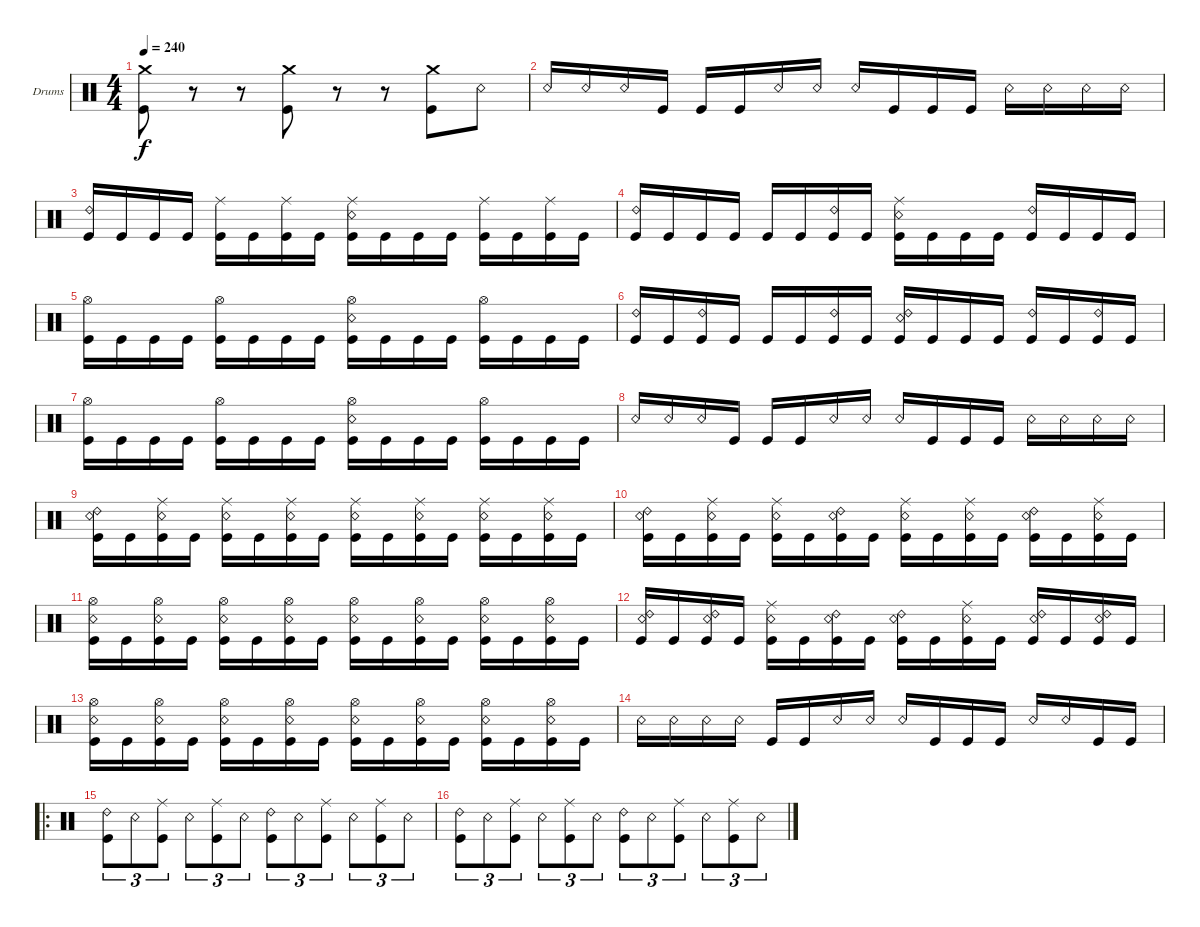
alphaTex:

\bracketExtendMode groupsimilarinstruments
\firstSystemTrackNameOrientation horizontal
\otherSystemsTrackNameOrientation horizontal
\track ("Drumkit" "Drums") {instrument percussion}
\staff {score}
\articulation defaults
\ts (4 4)
\tempo 240
\clef neutral
\ks c
("Crash medium (hit)" "Kick (hit)").8{dy f} r.8 r.8 ("Crash medium (hit)" "Kick (hit)").8 r.8 r.8 ("Crash medium (hit)" "Kick (hit)").8 "Snare (rim shot)".8 |
"Snare (rim shot)".16 "Snare (rim shot)".16 "Snare (rim shot)".16 "Kick (hit)".16 "Kick (hit)".16 "Kick (hit)".16 "Snare (rim shot)".16 "Snare (rim shot)".16 "Snare (rim shot)".16 "Kick (hit)".16 "Kick (hit)".16 "Kick (hit)".16 "Snare (rim shot)".16 "Snare (rim shot)".16 "Snare (rim shot)".16 "Snare (rim shot)".16 |
("Ride (bell) 2" "Kick (hit)").16 "Kick (hit)".16 "Kick (hit)".16 "Kick (hit)".16 ("Ride (middle)" "Kick (hit)").16 "Kick (hit)".16 ("Ride (middle)" "Kick (hit)").16 "Kick (hit)".16 ("Ride (middle)" "Kick (hit)" "Snare (rim shot)").16 "Kick (hit)".16 "Kick (hit)".16 "Kick (hit)".16 ("Ride (middle)" "Kick (hit)").16 "Kick (hit)".16 ("Ride (middle)" "Kick (hit)").16 "Kick (hit)".16 |
("Ride (bell) 2" "Kick (hit)").16 "Kick (hit)".16 "Kick (hit)".16 "Kick (hit)".16 "Kick (hit)".16 "Kick (hit)".16 ("Ride (bell) 2" "Kick (hit)").16 "Kick (hit)".16 ("Ride (middle)" "Kick (hit)" "Snare (rim shot)").16 "Kick (hit)".16 "Kick (hit)".16 "Kick (hit)".16 ("Ride (bell) 2" "Kick (hit)").16 "Kick (hit)".16 "Kick (hit)".16 "Kick (hit)".16 |
("Hi-Hat (open)" "Kick (hit)").16 "Kick (hit)".16 "Kick (hit)".16 "Kick (hit)".16 ("Hi-Hat (open)" "Kick (hit)").16 "Kick (hit)".16 "Kick (hit)".16 "Kick (hit)".16 ("Hi-Hat (open)" "Kick (hit)" "Snare (rim shot)").16 "Kick (hit)".16 "Kick (hit)".16 "Kick (hit)".16 ("Hi-Hat (open)" "Kick (hit)").16 "Kick (hit)".16 "Kick (hit)".16 "Kick (hit)".16 |
("Ride (bell) 2" "Kick (hit)").16 "Kick (hit)".16 ("Ride (bell) 2" "Kick (hit)").16 "Kick (hit)".16 "Kick (hit)".16 "Kick (hit)".16 ("Ride (bell) 2" "Kick (hit)").16 "Kick (hit)".16 ("Ride (bell) 2" "Kick (hit)" "Snare (rim shot)").16 "Kick (hit)".16 "Kick (hit)".16 "Kick (hit)".16 ("Ride (bell) 2" "Kick (hit)").16 "Kick (hit)".16 ("Ride (bell) 2" "Kick (hit)").16 "Kick (hit)".16 |
("Hi-Hat (open)" "Kick (hit)").16 "Kick (hit)".16 "Kick (hit)".16 "Kick (hit)".16 ("Hi-Hat (open)" "Kick (hit)").16 "Kick (hit)".16 "Kick (hit)".16 "Kick (hit)".16 ("Hi-Hat (open)" "Kick (hit)" "Snare (rim shot)").16 "Kick (hit)".16 "Kick (hit)".16 "Kick (hit)".16 ("Hi-Hat (open)" "Kick (hit)").16 "Kick (hit)".16 "Kick (hit)".16 "Kick (hit)".16 |
"Snare (rim shot)".16 "Snare (rim shot)".16 "Snare (rim shot)".16 "Kick (hit)".16 "Kick (hit)".16 "Kick (hit)".16 "Snare (rim shot)".16 "Snare (rim shot)".16 "Snare (rim shot)".16 "Kick (hit)".16 "Kick (hit)".16 "Kick (hit)".16 "Snare (rim shot)".16 "Snare (rim shot)".16 "Snare (rim shot)".16 "Snare (rim shot)".16 |
("Snare (rim shot)" "Ride (bell) 2" "Kick (hit)").16 "Kick (hit)".16 ("Snare (rim shot)" "Ride (middle)" "Kick (hit)").16 "Kick (hit)".16 ("Snare (rim shot)" "Ride (middle)" "Kick (hit)").16 "Kick (hit)".16 ("Snare (rim shot)" "Ride (middle)" "Kick (hit)").16 "Kick (hit)".16 ("Snare (rim shot)" "Ride (middle)" "Kick (hit)").16 "Kick (hit)".16 ("Snare (rim shot)" "Ride (middle)" "Kick (hit)").16 "Kick (hit)".16 ("Snare (rim shot)" "Ride (middle)" "Kick (hit)").16 "Kick (hit)".16 ("Snare (rim shot)" "Ride (middle)" "Kick (hit)").16 "Kick (hit)".16 |
("Snare (rim shot)" "Ride (bell) 2" "Kick (hit)").16 "Kick (hit)".16 ("Snare (rim shot)" "Ride (middle)" "Kick (hit)").16 "Kick (hit)".16 ("Snare (rim shot)" "Ride (middle)" "Kick (hit)").16 "Kick (hit)".16 ("Snare (rim shot)" "Ride (bell) 2" "Kick (hit)").16 "Kick (hit)".16 ("Snare (rim shot)" "Ride (middle)" "Kick (hit)").16 "Kick (hit)".16 ("Snare (rim shot)" "Ride (middle)" "Kick (hit)").16 "Kick (hit)".16 ("Snare (rim shot)" "Ride (bell) 2" "Kick (hit)").16 "Kick (hit)".16 ("Snare (rim shot)" "Ride (middle)" "Kick (hit)").16 "Kick (hit)".16 |
("Snare (rim shot)" "Hi-Hat (open)" "Kick (hit)").16 "Kick (hit)".16 ("Snare (rim shot)" "Hi-Hat (open)" "Kick (hit)").16 "Kick (hit)".16 ("Snare (rim shot)" "Hi-Hat (open)" "Kick (hit)").16 "Kick (hit)".16 ("Snare (rim shot)" "Hi-Hat (open)" "Kick (hit)").16 "Kick (hit)".16 ("Snare (rim shot)" "Hi-Hat (open)" "Kick (hit)").16 "Kick (hit)".16 ("Snare (rim shot)" "Hi-Hat (open)" "Kick (hit)").16 "Kick (hit)".16 ("Snare (rim shot)" "Hi-Hat (open)" "Kick (hit)").16 "Kick (hit)".16 ("Snare (rim shot)" "Hi-Hat (open)" "Kick (hit)").16 "Kick (hit)".16 |
("Snare (rim shot)" "Ride (bell) 2" "Kick (hit)").16 "Kick (hit)".16 ("Snare (rim shot)" "Ride (bell) 2" "Kick (hit)").16 "Kick (hit)".16 ("Snare (rim shot)" "Ride (middle)" "Kick (hit)").16 "Kick (hit)".16 ("Snare (rim shot)" "Ride (bell) 2" "Kick (hit)").16 "Kick (hit)".16 ("Snare (rim shot)" "Ride (bell) 2" "Kick (hit)").16 "Kick (hit)".16 ("Snare (rim shot)" "Ride (middle)" "Kick (hit)").16 "Kick (hit)".16 ("Snare (rim shot)" "Ride (bell) 2" "Kick (hit)").16 "Kick (hit)".16 ("Snare (rim shot)" "Ride (bell) 2" "Kick (hit)").16 "Kick (hit)".16 |
("Snare (rim shot)" "Hi-Hat (open)" "Kick (hit)").16 "Kick (hit)".16 ("Snare (rim shot)" "Hi-Hat (open)" "Kick (hit)").16 "Kick (hit)".16 ("Snare (rim shot)" "Hi-Hat (open)" "Kick (hit)").16 "Kick (hit)".16 ("Snare (rim shot)" "Hi-Hat (open)" "Kick (hit)").16 "Kick (hit)".16 ("Snare (rim shot)" "Hi-Hat (open)" "Kick (hit)").16 "Kick (hit)".16 ("Snare (rim shot)" "Hi-Hat (open)" "Kick (hit)").16 "Kick (hit)".16 ("Snare (rim shot)" "Hi-Hat (open)" "Kick (hit)").16 "Kick (hit)".16 ("Snare (rim shot)" "Hi-Hat (open)" "Kick (hit)").16 "Kick (hit)".16 |
"Snare (rim shot)".16 "Snare (rim shot)".16 "Snare (rim shot)".16 "Snare (rim shot)".16 "Kick (hit)".16 "Kick (hit)".16 "Snare (rim shot)".16 "Snare (rim shot)".16 "Snare (rim shot)".16 "Kick (hit)".16 "Kick (hit)".16 "Kick (hit)".16 "Snare (rim shot)".16 "Snare (rim shot)".16 "Kick (hit)".16 "Kick (hit)".16 |
\ro
("Ride (bell) 2" "Kick (hit)").8{tu (3 2)} "Snare (rim shot)".8{tu (3 2)} ("Ride (middle)" "Kick (hit)").8{tu (3 2)} "Snare (rim shot)".8{tu (3 2)} ("Ride (middle)" "Kick (hit)").8{tu (3 2)} "Snare (rim shot)".8{tu (3 2)} ("Ride (bell) 2" "Kick (hit)").8{tu (3 2)} "Snare (rim shot)".8{tu (3 2)} ("Ride (middle)" "Kick (hit)").8{tu (3 2)} "Snare (rim shot)".8{tu (3 2)} ("Ride (middle)" "Kick (hit)").8{tu (3 2)} "Snare (rim shot)".8{tu (3 2)} |
("Ride (bell) 2" "Kick (hit)").8{tu (3 2)} "Snare (rim shot)".8{tu (3 2)} ("Ride (middle)" "Kick (hit)").8{tu (3 2)} "Snare (rim shot)".8{tu (3 2)} ("Ride (middle)" "Kick (hit)").8{tu (3 2)} "Snare (rim shot)".8{tu (3 2)} ("Ride (bell) 2" "Kick (hit)").8{tu (3 2)} "Snare (rim shot)".8{tu (3 2)} ("Ride (middle)" "Kick (hit)").8{tu (3 2)} "Snare (rim shot)".8{tu (3 2)} ("Ride (middle)" "Kick (hit)").8{tu (3 2)} "Snare (rim shot)".8{tu (3 2)}
